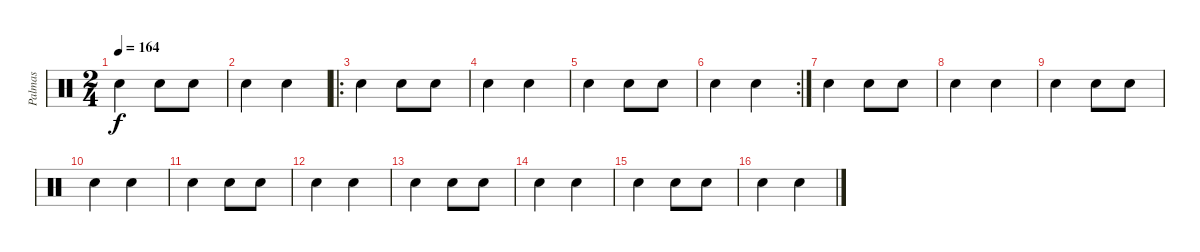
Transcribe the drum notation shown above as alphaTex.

\track ("Palmas" "Palmas") {instrument percussion}
\staff {score}
\articulation defaults
\ts (2 4)
\tempo 164
\clef neutral
\ks c "Hand Clap (hit)".4{dy f} "Hand Clap (hit)".8 "Hand Clap (hit)".8
|
"Hand Clap (hit)".4 "Hand Clap (hit)".4 |
\ro "Hand Clap (hit)".4 "Hand Clap (hit)".8 "Hand Clap (hit)".8
|
"Hand Clap (hit)".4 "Hand Clap (hit)".4 |
"Hand Clap (hit)".4 "Hand Clap (hit)".8 "Hand Clap (hit)".8 |
\rc 2 "Hand Clap (hit)".4 "Hand Clap (hit)".4
|
"Hand Clap (hit)".4 "Hand Clap (hit)".8 "Hand Clap (hit)".8 |
"Hand Clap (hit)".4 "Hand Clap (hit)".4 |
"Hand Clap (hit)".4 "Hand Clap (hit)".8 "Hand Clap (hit)".8 |
"Hand Clap (hit)".4 "Hand Clap (hit)".4 |
"Hand Clap (hit)".4 "Hand Clap (hit)".8 "Hand Clap (hit)".8 |
"Hand Clap (hit)".4 "Hand Clap (hit)".4 |
"Hand Clap (hit)".4 "Hand Clap (hit)".8 "Hand Clap (hit)".8 |
"Hand Clap (hit)".4 "Hand Clap (hit)".4 |
"Hand Clap (hit)".4 "Hand Clap (hit)".8 "Hand Clap (hit)".8 |
"Hand Clap (hit)".4 "Hand Clap (hit)".4
